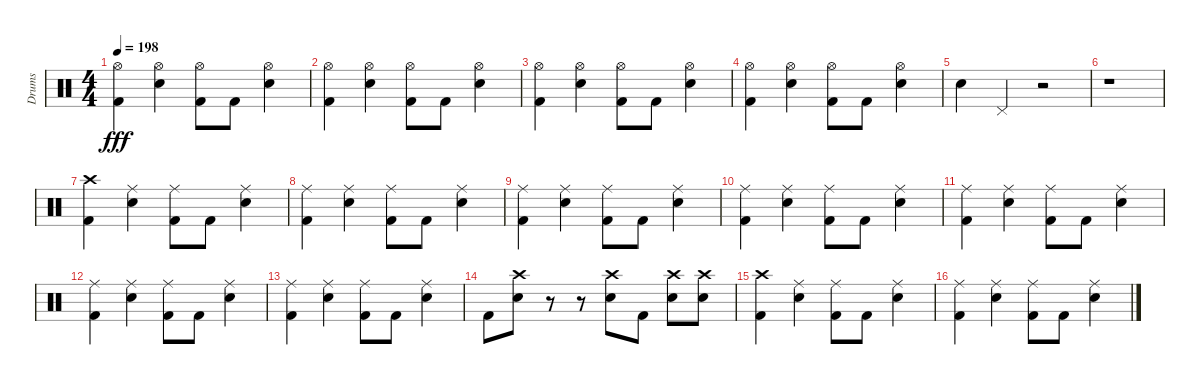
\track ("Drums" "Drums") {instrument percussion}
\staff {score}
\articulation defaults
\ts (4 4)
\tempo 198
\clef neutral
\ks c
("Hi-Hat (open)" "Kick (hit) 2").4{dy fff} ("Hi-Hat (open)" "Electric Snare (hit)").4 ("Hi-Hat (open)" "Kick (hit) 2").8 "Kick (hit) 2".8 ("Hi-Hat (open)" "Electric Snare (hit)").4 |
("Hi-Hat (open)" "Kick (hit) 2").4 ("Hi-Hat (open)" "Electric Snare (hit)").4 ("Hi-Hat (open)" "Kick (hit) 2").8 "Kick (hit) 2".8 ("Hi-Hat (open)" "Electric Snare (hit)").4 |
("Hi-Hat (open)" "Kick (hit) 2").4 ("Hi-Hat (open)" "Electric Snare (hit)").4 ("Hi-Hat (open)" "Kick (hit) 2").8 "Kick (hit) 2".8 ("Hi-Hat (open)" "Electric Snare (hit)").4 |
("Hi-Hat (open)" "Kick (hit) 2").4 ("Hi-Hat (open)" "Electric Snare (hit)").4 ("Hi-Hat (open)" "Kick (hit) 2").8 "Kick (hit) 2".8 ("Hi-Hat (open)" "Electric Snare (hit)").4 |
"Electric Snare (hit)".4 "Pedal Hi-Hat (hit)".4 r.2 |
r.1 |
("Crash high (hit)" "Kick (hit) 2").4 ("Ride (middle)" "Electric Snare (hit)").4 ("Ride (middle)" "Kick (hit) 2").8 "Kick (hit) 2".8 ("Ride (middle)" "Electric Snare (hit)").4 |
("Ride (middle)" "Kick (hit) 2").4 ("Ride (middle)" "Electric Snare (hit)").4 ("Ride (middle)" "Kick (hit) 2").8 "Kick (hit) 2".8 ("Ride (middle)" "Electric Snare (hit)").4 |
("Ride (middle)" "Kick (hit) 2").4 ("Ride (middle)" "Electric Snare (hit)").4 ("Ride (middle)" "Kick (hit) 2").8 "Kick (hit) 2".8 ("Ride (middle)" "Electric Snare (hit)").4 |
("Ride (middle)" "Kick (hit) 2").4 ("Ride (middle)" "Electric Snare (hit)").4 ("Ride (middle)" "Kick (hit) 2").8 "Kick (hit) 2".8 ("Ride (middle)" "Electric Snare (hit)").4 |
("Ride (middle)" "Kick (hit) 2").4 ("Ride (middle)" "Electric Snare (hit)").4 ("Ride (middle)" "Kick (hit) 2").8 "Kick (hit) 2".8 ("Ride (middle)" "Electric Snare (hit)").4 |
("Ride (middle)" "Kick (hit) 2").4 ("Ride (middle)" "Electric Snare (hit)").4 ("Ride (middle)" "Kick (hit) 2").8 "Kick (hit) 2".8 ("Ride (middle)" "Electric Snare (hit)").4 |
("Ride (middle)" "Kick (hit) 2").4 ("Ride (middle)" "Electric Snare (hit)").4 ("Ride (middle)" "Kick (hit) 2").8 "Kick (hit) 2".8 ("Ride (middle)" "Electric Snare (hit)").4 |
"Kick (hit) 2".8 ("Crash high (hit)" "Electric Snare (hit)").8 r.8 r.8 ("Crash high (hit)" "Electric Snare (hit)").8 "Kick (hit) 2".8 ("Crash high (hit)" "Electric Snare (hit)").8 ("Crash high (hit)" "Electric Snare (hit)").8 |
("Crash high (hit)" "Kick (hit) 2").4 ("Ride (middle)" "Electric Snare (hit)").4 ("Ride (middle)" "Kick (hit) 2").8 "Kick (hit) 2".8 ("Ride (middle)" "Electric Snare (hit)").4 |
("Ride (middle)" "Kick (hit) 2").4 ("Ride (middle)" "Electric Snare (hit)").4 ("Ride (middle)" "Kick (hit) 2").8 "Kick (hit) 2".8 ("Ride (middle)" "Electric Snare (hit)").4
